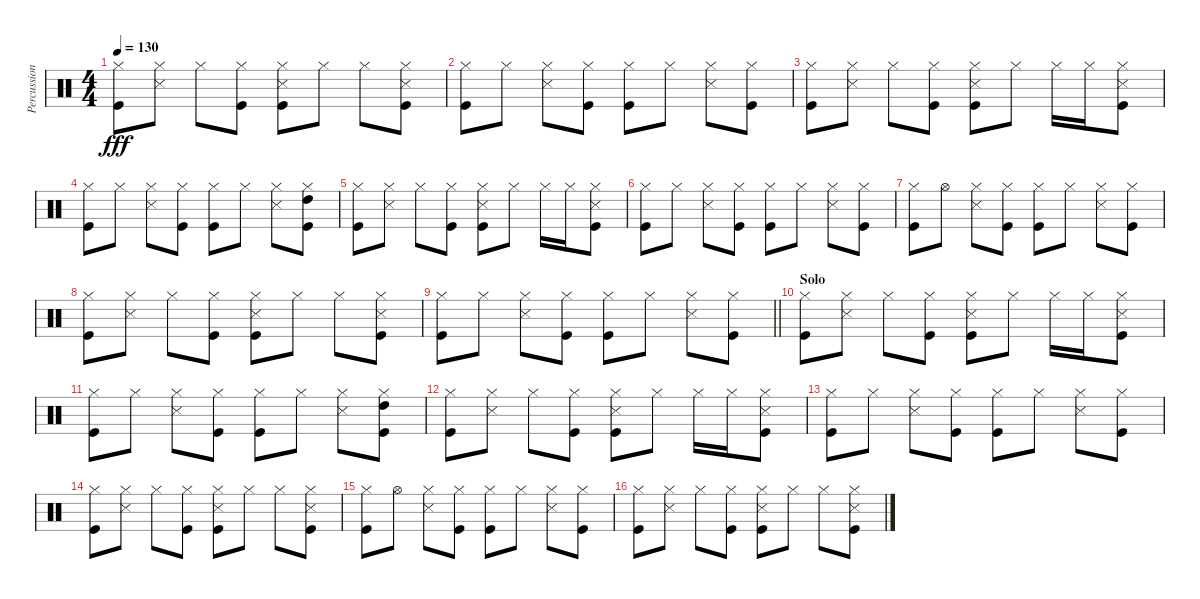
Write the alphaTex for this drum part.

\track ("Percussions 2" "Percussion") {instrument percussion}
\staff {score}
\articulation defaults
\ts (4 4)
\tempo 130
\clef neutral
\ks c
("Kick (hit)" "Hi-Hat (closed)").8{dy fff} ("Snare (side stick) 3" "Hi-Hat (closed)").8 "Hi-Hat (closed)".8 ("Kick (hit)" "Hi-Hat (closed)").8 ("Kick (hit)" "Snare (side stick) 3" "Hi-Hat (closed)").8 "Hi-Hat (closed)".8 "Hi-Hat (closed)".8 ("Kick (hit)" "Snare (side stick) 3" "Hi-Hat (closed)").8 |
("Kick (hit)" "Hi-Hat (closed)").8 "Hi-Hat (closed)".8 ("Snare (side stick) 3" "Hi-Hat (closed)").8 ("Kick (hit)" "Hi-Hat (closed)").8 ("Kick (hit)" "Hi-Hat (closed)").8 "Hi-Hat (closed)".8 ("Snare (side stick) 3" "Hi-Hat (closed)").8 ("Kick (hit)" "Hi-Hat (closed)").8 |
("Kick (hit)" "Hi-Hat (closed)").8 ("Snare (side stick) 3" "Hi-Hat (closed)").8 "Hi-Hat (closed)".8 ("Kick (hit)" "Hi-Hat (closed)").8 ("Kick (hit)" "Snare (side stick) 3" "Hi-Hat (closed)").8 "Hi-Hat (closed)".8 "Hi-Hat (closed)".16 "Hi-Hat (closed)".16 ("Kick (hit)" "Snare (side stick) 3" "Hi-Hat (closed)").8 |
("Kick (hit)" "Hi-Hat (closed)").8 "Hi-Hat (closed)".8 ("Snare (side stick) 3" "Hi-Hat (closed)").8 ("Kick (hit)" "Hi-Hat (closed)").8 ("Kick (hit)" "Hi-Hat (closed)").8 "Hi-Hat (closed)".8 ("Snare (side stick) 3" "Hi-Hat (closed)").8 ("Kick (hit)" "Hi-Hat (closed)" "High Tom (hit)").8 |
("Kick (hit)" "Hi-Hat (closed)").8 ("Snare (side stick) 3" "Hi-Hat (closed)").8 "Hi-Hat (closed)".8 ("Kick (hit)" "Hi-Hat (closed)").8 ("Kick (hit)" "Snare (side stick) 3" "Hi-Hat (closed)").8 "Hi-Hat (closed)".8 "Hi-Hat (closed)".16 "Hi-Hat (closed)".16 ("Kick (hit)" "Snare (side stick) 3" "Hi-Hat (closed)").8 |
("Kick (hit)" "Hi-Hat (closed)").8 "Hi-Hat (closed)".8 ("Snare (side stick) 3" "Hi-Hat (closed)").8 ("Kick (hit)" "Hi-Hat (closed)").8 ("Kick (hit)" "Hi-Hat (closed)").8 "Hi-Hat (closed)".8 ("Snare (side stick) 3" "Hi-Hat (closed)").8 ("Kick (hit)" "Hi-Hat (closed)").8 |
("Kick (hit)" "Hi-Hat (closed)").8 "Hi-Hat (open)".8 ("Snare (side stick) 3" "Hi-Hat (closed)").8 ("Kick (hit)" "Hi-Hat (closed)").8 ("Kick (hit)" "Hi-Hat (closed)").8 "Hi-Hat (closed)".8 ("Snare (side stick) 3" "Hi-Hat (closed)").8 ("Kick (hit)" "Hi-Hat (closed)").8 |
("Kick (hit)" "Hi-Hat (closed)").8 ("Snare (side stick) 3" "Hi-Hat (closed)").8 "Hi-Hat (closed)".8 ("Kick (hit)" "Hi-Hat (closed)").8 ("Kick (hit)" "Snare (side stick) 3" "Hi-Hat (closed)").8 "Hi-Hat (closed)".8 "Hi-Hat (closed)".8 ("Kick (hit)" "Snare (side stick) 3" "Hi-Hat (closed)").8 |
\barLineRight lightlight
("Kick (hit)" "Hi-Hat (closed)").8 "Hi-Hat (closed)".8 ("Snare (side stick) 3" "Hi-Hat (closed)").8 ("Kick (hit)" "Hi-Hat (closed)").8 ("Kick (hit)" "Hi-Hat (closed)").8 "Hi-Hat (closed)".8 ("Snare (side stick) 3" "Hi-Hat (closed)").8 ("Kick (hit)" "Hi-Hat (closed)").8 |
\section ("" "Solo")
("Kick (hit)" "Hi-Hat (closed)").8 ("Snare (side stick) 3" "Hi-Hat (closed)").8 "Hi-Hat (closed)".8 ("Kick (hit)" "Hi-Hat (closed)").8 ("Kick (hit)" "Snare (side stick) 3" "Hi-Hat (closed)").8 "Hi-Hat (closed)".8 "Hi-Hat (closed)".16 "Hi-Hat (closed)".16 ("Kick (hit)" "Snare (side stick) 3" "Hi-Hat (closed)").8 |
("Kick (hit)" "Hi-Hat (closed)").8 "Hi-Hat (closed)".8 ("Snare (side stick) 3" "Hi-Hat (closed)").8 ("Kick (hit)" "Hi-Hat (closed)").8 ("Kick (hit)" "Hi-Hat (closed)").8 "Hi-Hat (closed)".8 ("Snare (side stick) 3" "Hi-Hat (closed)").8 ("Kick (hit)" "Hi-Hat (closed)" "High Tom (hit)").8 |
("Kick (hit)" "Hi-Hat (closed)").8 ("Snare (side stick) 3" "Hi-Hat (closed)").8 "Hi-Hat (closed)".8 ("Kick (hit)" "Hi-Hat (closed)").8 ("Kick (hit)" "Snare (side stick) 3" "Hi-Hat (closed)").8 "Hi-Hat (closed)".8 "Hi-Hat (closed)".16 "Hi-Hat (closed)".16 ("Kick (hit)" "Snare (side stick) 3" "Hi-Hat (closed)").8 |
("Kick (hit)" "Hi-Hat (closed)").8 "Hi-Hat (closed)".8 ("Snare (side stick) 3" "Hi-Hat (closed)").8 ("Kick (hit)" "Hi-Hat (closed)").8 ("Kick (hit)" "Hi-Hat (closed)").8 "Hi-Hat (closed)".8 ("Snare (side stick) 3" "Hi-Hat (closed)").8 ("Kick (hit)" "Hi-Hat (closed)").8 |
("Kick (hit)" "Hi-Hat (closed)").8 ("Snare (side stick) 3" "Hi-Hat (closed)").8 "Hi-Hat (closed)".8 ("Kick (hit)" "Hi-Hat (closed)").8 ("Kick (hit)" "Snare (side stick) 3" "Hi-Hat (closed)").8 "Hi-Hat (closed)".8 "Hi-Hat (closed)".8 ("Kick (hit)" "Snare (side stick) 3" "Hi-Hat (closed)").8 |
("Kick (hit)" "Hi-Hat (closed)").8 "Hi-Hat (open)".8 ("Snare (side stick) 3" "Hi-Hat (closed)").8 ("Kick (hit)" "Hi-Hat (closed)").8 ("Kick (hit)" "Hi-Hat (closed)").8 "Hi-Hat (closed)".8 ("Snare (side stick) 3" "Hi-Hat (closed)").8 ("Kick (hit)" "Hi-Hat (closed)").8 |
("Kick (hit)" "Hi-Hat (closed)").8 ("Snare (side stick) 3" "Hi-Hat (closed)").8 "Hi-Hat (closed)".8 ("Kick (hit)" "Hi-Hat (closed)").8 ("Kick (hit)" "Snare (side stick) 3" "Hi-Hat (closed)").8 "Hi-Hat (closed)".8 "Hi-Hat (closed)".8 ("Kick (hit)" "Snare (side stick) 3" "Hi-Hat (closed)").8
